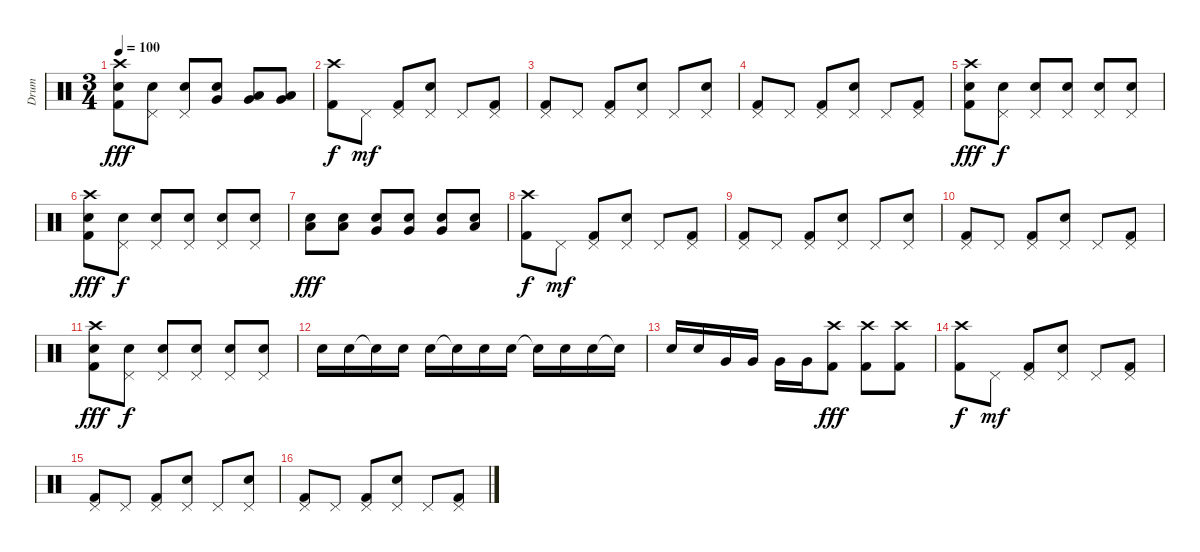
\track ("Drum" "Drum") {instrument percussion}
\staff {score}
\articulation defaults
\ts (3 4)
\tempo 100
\clef neutral
\ks c
("Snare (hit) 2" "Kick (hit) 2" "Crash high (hit)").8{dy fff} ("Snare (hit) 2" "Pedal Hi-Hat (hit)").8 ("Snare (hit) 2" "Pedal Hi-Hat (hit)").8 ("Snare (hit) 2" "Very Low Tom (hit)").8{bd 240} ("Low Tom (hit)" "Very Low Tom (hit)").8{bd 240} ("Low Tom (hit)" "Very Low Tom (hit)").8{bd 60} |
("Kick (hit) 2" "Crash high (hit)").8{dy f} "Pedal Hi-Hat (hit)".8{dy mf} ("Kick (hit) 2" "Pedal Hi-Hat (hit)").8 ("Snare (hit) 2" "Pedal Hi-Hat (hit)").8 "Pedal Hi-Hat (hit)".8 ("Kick (hit) 2" "Pedal Hi-Hat (hit)").8 |
("Kick (hit) 2" "Pedal Hi-Hat (hit)").8 "Pedal Hi-Hat (hit)".8 ("Kick (hit) 2" "Pedal Hi-Hat (hit)").8 ("Snare (hit) 2" "Pedal Hi-Hat (hit)").8 "Pedal Hi-Hat (hit)".8 ("Snare (hit) 2" "Pedal Hi-Hat (hit)").8 |
("Kick (hit) 2" "Pedal Hi-Hat (hit)").8 "Pedal Hi-Hat (hit)".8 ("Kick (hit) 2" "Pedal Hi-Hat (hit)").8 ("Snare (hit) 2" "Pedal Hi-Hat (hit)").8 "Pedal Hi-Hat (hit)".8 ("Kick (hit) 2" "Pedal Hi-Hat (hit)").8 |
("Kick (hit) 2" "Crash high (hit)" "Snare (hit) 2").8{dy fff} ("Snare (hit) 2" "Pedal Hi-Hat (hit)").8{dy f} ("Snare (hit) 2" "Pedal Hi-Hat (hit)").8 ("Snare (hit) 2" "Pedal Hi-Hat (hit)").8 ("Snare (hit) 2" "Pedal Hi-Hat (hit)").8 ("Snare (hit) 2" "Pedal Hi-Hat (hit)").8 |
("Kick (hit) 2" "Crash high (hit)" "Snare (hit) 2").8{dy fff} ("Snare (hit) 2" "Pedal Hi-Hat (hit)").8{dy f} ("Snare (hit) 2" "Pedal Hi-Hat (hit)").8 ("Snare (hit) 2" "Pedal Hi-Hat (hit)").8 ("Snare (hit) 2" "Pedal Hi-Hat (hit)").8 ("Snare (hit) 2" "Pedal Hi-Hat (hit)").8 |
("Snare (hit) 2" "Low Tom (hit)").8{bd 30 dy fff} ("Snare (hit) 2" "Low Tom (hit)").8{bd 30} ("Snare (hit) 2" "Very Low Tom (hit)").8{bd 30} ("Snare (hit) 2" "Very Low Tom (hit)").8{bd 30} ("Snare (hit) 2" "Very Low Tom (hit)").8{bd 30} ("Snare (hit) 2" "Low Floor Tom (hit)").8{bd 30} |
("Kick (hit) 2" "Crash high (hit)").8{dy f} "Pedal Hi-Hat (hit)".8{dy mf} ("Kick (hit) 2" "Pedal Hi-Hat (hit)").8 ("Snare (hit) 2" "Pedal Hi-Hat (hit)").8 "Pedal Hi-Hat (hit)".8 ("Kick (hit) 2" "Pedal Hi-Hat (hit)").8 |
("Kick (hit) 2" "Pedal Hi-Hat (hit)").8 "Pedal Hi-Hat (hit)".8 ("Kick (hit) 2" "Pedal Hi-Hat (hit)").8 ("Snare (hit) 2" "Pedal Hi-Hat (hit)").8 "Pedal Hi-Hat (hit)".8 ("Snare (hit) 2" "Pedal Hi-Hat (hit)").8 |
("Kick (hit) 2" "Pedal Hi-Hat (hit)").8 "Pedal Hi-Hat (hit)".8 ("Kick (hit) 2" "Pedal Hi-Hat (hit)").8 ("Snare (hit) 2" "Pedal Hi-Hat (hit)").8 "Pedal Hi-Hat (hit)".8 ("Kick (hit) 2" "Pedal Hi-Hat (hit)").8 |
("Kick (hit) 2" "Crash high (hit)" "Snare (hit) 2").8{dy fff} ("Snare (hit) 2" "Pedal Hi-Hat (hit)").8{dy f} ("Snare (hit) 2" "Pedal Hi-Hat (hit)").8 ("Snare (hit) 2" "Pedal Hi-Hat (hit)").8 ("Snare (hit) 2" "Pedal Hi-Hat (hit)").8 ("Snare (hit) 2" "Pedal Hi-Hat (hit)").8 |
"Snare (hit) 2".16 "Snare (hit) 2".16 "Snare (hit)"{t}.16 "Snare (hit) 2".16 "Snare (hit) 2".16 "Snare (hit)"{t}.16 "Snare (hit) 2".16 "Snare (hit) 2".16 "Snare (hit)"{t}.16 "Snare (hit) 2".16 "Snare (hit) 2".16 "Snare (hit)"{t}.16 |
"Snare (hit) 2".16 "Snare (hit) 2".16 "Very Low Tom (hit)".16 "Very Low Tom (hit)".16 "Very Low Tom (hit)".16 "Very Low Tom (hit)".16 ("Kick (hit) 2" "Crash high (hit)").8{dy fff} ("Kick (hit) 2" "Crash high (hit)").8 ("Kick (hit) 2" "Crash high (hit)").8 |
("Kick (hit) 2" "Crash high (hit)").8{dy f} "Pedal Hi-Hat (hit)".8{dy mf} ("Kick (hit) 2" "Pedal Hi-Hat (hit)").8 ("Snare (hit) 2" "Pedal Hi-Hat (hit)").8 "Pedal Hi-Hat (hit)".8 ("Kick (hit) 2" "Pedal Hi-Hat (hit)").8 |
("Kick (hit) 2" "Pedal Hi-Hat (hit)").8 "Pedal Hi-Hat (hit)".8 ("Kick (hit) 2" "Pedal Hi-Hat (hit)").8 ("Snare (hit) 2" "Pedal Hi-Hat (hit)").8 "Pedal Hi-Hat (hit)".8 ("Snare (hit) 2" "Pedal Hi-Hat (hit)").8 |
("Kick (hit) 2" "Pedal Hi-Hat (hit)").8 "Pedal Hi-Hat (hit)".8 ("Kick (hit) 2" "Pedal Hi-Hat (hit)").8 ("Snare (hit) 2" "Pedal Hi-Hat (hit)").8 "Pedal Hi-Hat (hit)".8 ("Kick (hit) 2" "Pedal Hi-Hat (hit)").8
